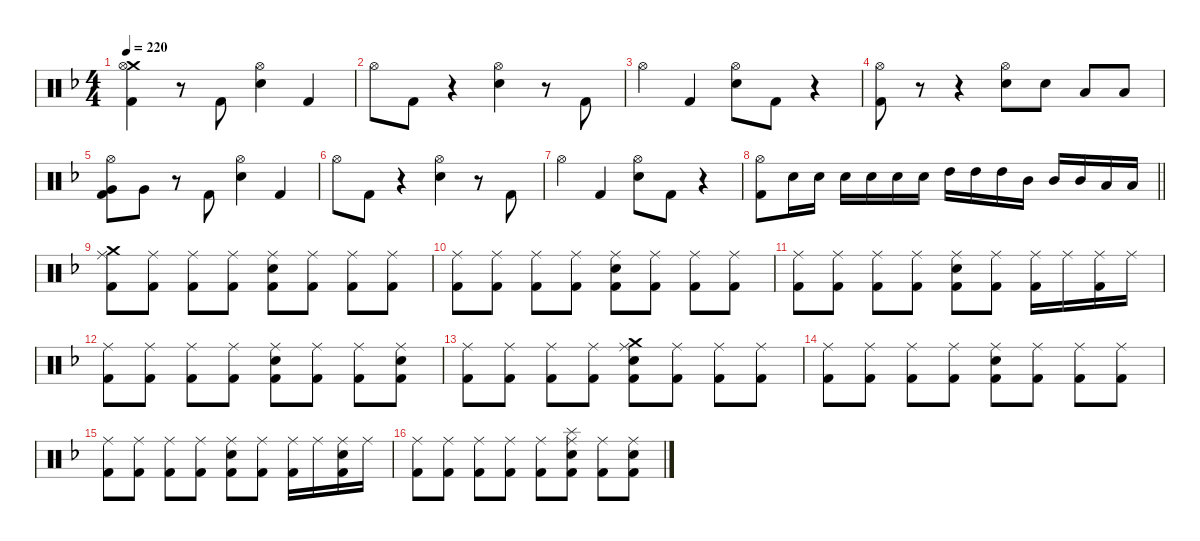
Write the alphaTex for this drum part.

\hideDynamics
\bracketExtendMode nobrackets
\singleTrackTrackNamePolicy hidden
\multiTrackTrackNamePolicy hidden
\firstSystemTrackNameMode fullname
\firstSystemTrackNameOrientation horizontal
\otherSystemsTrackNameOrientation horizontal
\track ("Drumkit" "Drums") {instrument percussion}
\staff {score}
\articulation defaults
\ts (4 4)
\tempo 220
\clef neutral
\ks dminor
("Crash medium (hit)"{acc forcenatural} "Hi-Hat (open)"{acc forcenatural} "Kick (hit) 2"{acc forcenatural}).4{dy f beam Down} r.8{beam Down} "Kick (hit) 2"{acc forcenatural}.8{beam Up} ("Hi-Hat (open)"{acc forcenatural} "Snare (hit) 2"{acc forcenatural}).4{beam Down} "Kick (hit) 2"{acc forcenatural}.4{beam Up} |
"Hi-Hat (open)"{acc forcenatural}.8{beam Down} "Kick (hit) 2"{acc forcenatural}.8{beam Down} r.4{beam Down} ("Hi-Hat (open)"{acc forcenatural} "Snare (hit) 2"{acc forcenatural}).4{beam Down} r.8{beam Down} "Kick (hit) 2"{acc forcenatural}.8{beam Up} |
"Hi-Hat (open)"{acc forcenatural}.4{beam Down} "Kick (hit) 2"{acc forcenatural}.4{beam Up} ("Hi-Hat (open)"{acc forcenatural} "Snare (hit) 2"{acc forcenatural}).8{beam Down} "Kick (hit) 2"{acc forcenatural}.8{beam Down} r.4{beam Down} |
("Hi-Hat (open)"{acc forcenatural} "Kick (hit) 2"{acc forcenatural}).8{beam Down} r.8{beam Down} r.4{beam Down} ("Hi-Hat (open)"{acc forcenatural} "Snare (hit) 2"{acc forcenatural}).8{beam Down} "Snare (hit) 2"{acc forcenatural}.8{dy mf beam Down} "Low Tom (hit)"{acc forcenatural}.8{beam Up} "Low Tom (hit)"{acc forcenatural}.8{beam Up} |
("Hi-Hat (open)"{acc forcenatural} "Very Low Tom (hit)"{acc forcenatural} "Kick (hit) 2"{acc forcenatural}).8{dy f beam Down} "Very Low Tom (hit)"{acc forcenatural}.8{dy mf beam Down} r.8{beam Down} "Kick (hit) 2"{acc forcenatural}.8{dy f beam Up} ("Hi-Hat (open)"{acc forcenatural} "Snare (hit) 2"{acc forcenatural}).4{beam Down} "Kick (hit) 2"{acc forcenatural}.4{beam Up} |
"Hi-Hat (open)"{acc forcenatural}.8{beam Down} "Kick (hit) 2"{acc forcenatural}.8{beam Down} r.4{beam Down} ("Hi-Hat (open)"{acc forcenatural} "Snare (hit) 2"{acc forcenatural}).4{beam Down} r.8{beam Down} "Kick (hit) 2"{acc forcenatural}.8{beam Up} |
"Hi-Hat (open)"{acc forcenatural}.4{beam Down} "Kick (hit) 2"{acc forcenatural}.4{beam Up} ("Hi-Hat (open)"{acc forcenatural} "Snare (hit) 2"{acc forcenatural}).8{beam Down} "Kick (hit) 2"{acc forcenatural}.8{beam Down} r.4{beam Down} |
\barLineRight lightlight
("Hi-Hat (open)"{acc forcenatural} "Kick (hit) 2"{acc forcenatural}).8{beam Down} "Snare (hit) 2"{acc forcenatural}.16{beam Down} "Snare (hit) 2"{acc forcenatural}.16{beam Down} "Snare (hit) 2"{acc forcenatural}.16{beam Down} "Snare (hit) 2"{acc forcenatural}.16{beam Down} "Snare (hit) 2"{acc forcenatural}.16{beam Down} "Snare (hit) 2"{acc forcenatural}.16{beam Down} "High Tom (hit)"{acc forcenatural}.16{beam Down} "High Tom (hit)"{acc forcenatural}.16{beam Down} "High Tom (hit)"{acc forcenatural}.16{beam Down} "Mid Tom (hit)"{acc forcenatural}.16{beam Down} "Mid Tom (hit)"{acc forcenatural}.16{beam Up} "Mid Tom (hit)"{acc forcenatural}.16{beam Up} "Low Tom (hit)"{acc forcenatural}.16{beam Up} "Low Tom (hit)"{acc forcenatural}.16{beam Up} |
("Crash medium (hit)"{acc forcenatural} "Ride (middle)"{acc forcenatural} "Kick (hit) 2"{acc forcenatural}).8{beam Down} ("Ride (middle)"{acc forcenatural} "Kick (hit) 2"{acc forcenatural}).8{dy mp beam Down} ("Ride (middle)"{acc forcenatural} "Kick (hit) 2"{acc forcenatural}).8{dy f beam Down} ("Ride (middle)"{acc forcenatural} "Kick (hit) 2"{acc forcenatural}).8{dy mp beam Down} ("Ride (middle)"{acc forcenatural} "Snare (hit) 2"{acc forcenatural} "Kick (hit) 2"{acc forcenatural}).8{dy f beam Down} ("Ride (middle)"{acc forcenatural} "Kick (hit) 2"{acc forcenatural}).8{dy mp beam Down} ("Ride (middle)"{acc forcenatural} "Kick (hit) 2"{acc forcenatural}).8{dy f beam Down} ("Ride (middle)"{acc forcenatural} "Kick (hit) 2"{acc forcenatural}).8{dy mp beam Down} |
("Ride (middle)"{acc forcenatural} "Kick (hit) 2"{acc forcenatural}).8{dy f beam Down} ("Ride (middle)"{acc forcenatural} "Kick (hit) 2"{acc forcenatural}).8{dy mp beam Down} ("Ride (middle)"{acc forcenatural} "Kick (hit) 2"{acc forcenatural}).8{dy f beam Down} ("Ride (middle)"{acc forcenatural} "Kick (hit) 2"{acc forcenatural}).8{dy mp beam Down} ("Ride (middle)"{acc forcenatural} "Snare (hit) 2"{acc forcenatural} "Kick (hit) 2"{acc forcenatural}).8{dy f beam Down} ("Ride (middle)"{acc forcenatural} "Kick (hit) 2"{acc forcenatural}).8{dy mp beam Down} ("Ride (middle)"{acc forcenatural} "Kick (hit) 2"{acc forcenatural}).8{dy f beam Down} ("Ride (middle)"{acc forcenatural} "Kick (hit) 2"{acc forcenatural}).8{dy mp beam Down} |
("Ride (middle)"{acc forcenatural} "Kick (hit) 2"{acc forcenatural}).8{dy f beam Down} ("Ride (middle)"{acc forcenatural} "Kick (hit) 2"{acc forcenatural}).8{dy mp beam Down} ("Ride (middle)"{acc forcenatural} "Kick (hit) 2"{acc forcenatural}).8{dy f beam Down} ("Ride (middle)"{acc forcenatural} "Kick (hit) 2"{acc forcenatural}).8{dy mp beam Down} ("Ride (middle)"{acc forcenatural} "Snare (hit) 2"{acc forcenatural} "Kick (hit) 2"{acc forcenatural}).8{dy f beam Down} ("Ride (middle)"{acc forcenatural} "Kick (hit) 2"{acc forcenatural}).8{dy mp beam Down} ("Ride (middle)"{acc forcenatural} "Kick (hit) 2"{acc forcenatural}).16{dy f beam Down} "Ride (middle)"{acc forcenatural}.16{dy mf beam Down} ("Ride (middle)"{acc forcenatural} "Kick (hit) 2"{acc forcenatural}).16{dy mp beam Down} "Ride (middle)"{acc forcenatural}.16{dy mf beam Down} |
("Ride (middle)"{acc forcenatural} "Kick (hit) 2"{acc forcenatural}).8{dy f beam Down} ("Ride (middle)"{acc forcenatural} "Kick (hit) 2"{acc forcenatural}).8{dy mp beam Down} ("Ride (middle)"{acc forcenatural} "Kick (hit) 2"{acc forcenatural}).8{dy f beam Down} ("Ride (middle)"{acc forcenatural} "Kick (hit) 2"{acc forcenatural}).8{dy mp beam Down} ("Ride (middle)"{acc forcenatural} "Snare (hit) 2"{acc forcenatural} "Kick (hit) 2"{acc forcenatural}).8{dy f beam Down} ("Ride (middle)"{acc forcenatural} "Kick (hit) 2"{acc forcenatural}).8{dy mp beam Down} ("Ride (middle)"{acc forcenatural} "Kick (hit) 2"{acc forcenatural}).8{dy f beam Down} ("Ride (middle)"{acc forcenatural} "Snare (hit) 2"{acc forcenatural} "Kick (hit) 2"{acc forcenatural}).8{dy mp beam Down} |
("Ride (middle)"{acc forcenatural} "Kick (hit) 2"{acc forcenatural}).8{dy f beam Down} ("Ride (middle)"{acc forcenatural} "Kick (hit) 2"{acc forcenatural}).8{dy mp beam Down} ("Ride (middle)"{acc forcenatural} "Kick (hit) 2"{acc forcenatural}).8{dy f beam Down} ("Ride (middle)"{acc forcenatural} "Kick (hit) 2"{acc forcenatural}).8{dy mp beam Down} ("Crash medium (hit)"{acc forcenatural} "Ride (middle)"{acc forcenatural} "Snare (hit) 2"{acc forcenatural} "Kick (hit) 2"{acc forcenatural}).8{dy f beam Down} ("Ride (middle)"{acc forcenatural} "Kick (hit) 2"{acc forcenatural}).8{dy mp beam Down} ("Ride (middle)"{acc forcenatural} "Kick (hit) 2"{acc forcenatural}).8{dy f beam Down} ("Ride (middle)"{acc forcenatural} "Kick (hit) 2"{acc forcenatural}).8{dy mp beam Down} |
("Ride (middle)"{acc forcenatural} "Kick (hit) 2"{acc forcenatural}).8{dy f beam Down} ("Ride (middle)"{acc forcenatural} "Kick (hit) 2"{acc forcenatural}).8{dy mp beam Down} ("Ride (middle)"{acc forcenatural} "Kick (hit) 2"{acc forcenatural}).8{dy f beam Down} ("Ride (middle)"{acc forcenatural} "Kick (hit) 2"{acc forcenatural}).8{dy mp beam Down} ("Ride (middle)"{acc forcenatural} "Snare (hit) 2"{acc forcenatural} "Kick (hit) 2"{acc forcenatural}).8{dy f beam Down} ("Ride (middle)"{acc forcenatural} "Kick (hit) 2"{acc forcenatural}).8{dy mp beam Down} ("Ride (middle)"{acc forcenatural} "Kick (hit) 2"{acc forcenatural}).8{dy f beam Down} ("Ride (middle)"{acc forcenatural} "Kick (hit) 2"{acc forcenatural}).8{dy mp beam Down} |
("Ride (middle)"{acc forcenatural} "Kick (hit) 2"{acc forcenatural}).8{dy f beam Down} ("Ride (middle)"{acc forcenatural} "Kick (hit) 2"{acc forcenatural}).8{dy mp beam Down} ("Ride (middle)"{acc forcenatural} "Kick (hit) 2"{acc forcenatural}).8{dy f beam Down} ("Ride (middle)"{acc forcenatural} "Kick (hit) 2"{acc forcenatural}).8{dy mp beam Down} ("Ride (middle)"{acc forcenatural} "Snare (hit) 2"{acc forcenatural} "Kick (hit) 2"{acc forcenatural}).8{dy f beam Down} ("Ride (middle)"{acc forcenatural} "Kick (hit) 2"{acc forcenatural}).8{dy mp beam Down} ("Ride (middle)"{acc forcenatural} "Kick (hit) 2"{acc forcenatural}).16{dy f beam Down} "Ride (middle)"{acc forcenatural}.16{dy mf beam Down} ("Ride (middle)"{acc forcenatural} "Snare (hit) 2"{acc forcenatural} "Kick (hit) 2"{acc forcenatural}).16{dy mp beam Down} "Ride (middle)"{acc forcenatural}.16{dy mf beam Down} |
("Ride (middle)"{acc forcenatural} "Kick (hit) 2"{acc forcenatural}).8{dy f beam Down} ("Ride (middle)"{acc forcenatural} "Kick (hit) 2"{acc forcenatural}).8{dy mp beam Down} ("Ride (middle)"{acc forcenatural} "Kick (hit) 2"{acc forcenatural}).8{dy f beam Down} ("Ride (middle)"{acc forcenatural} "Kick (hit) 2"{acc forcenatural}).8{dy mp beam Down} ("Ride (middle)"{acc forcenatural} "Kick (hit) 2"{acc forcenatural}).8{dy f beam Down} ("Splash (hit)"{acc forcenatural} "Ride (middle)"{acc forcenatural} "Snare (hit) 2"{acc forcenatural} "Kick (hit) 2"{acc forcenatural}).8{beam Down} ("Ride (middle)"{acc forcenatural} "Kick (hit) 2"{acc forcenatural}).8{beam Down} ("Ride (middle)"{acc forcenatural} "Snare (hit) 2"{acc forcenatural} "Kick (hit) 2"{acc forcenatural}).8{dy mp beam Down}
